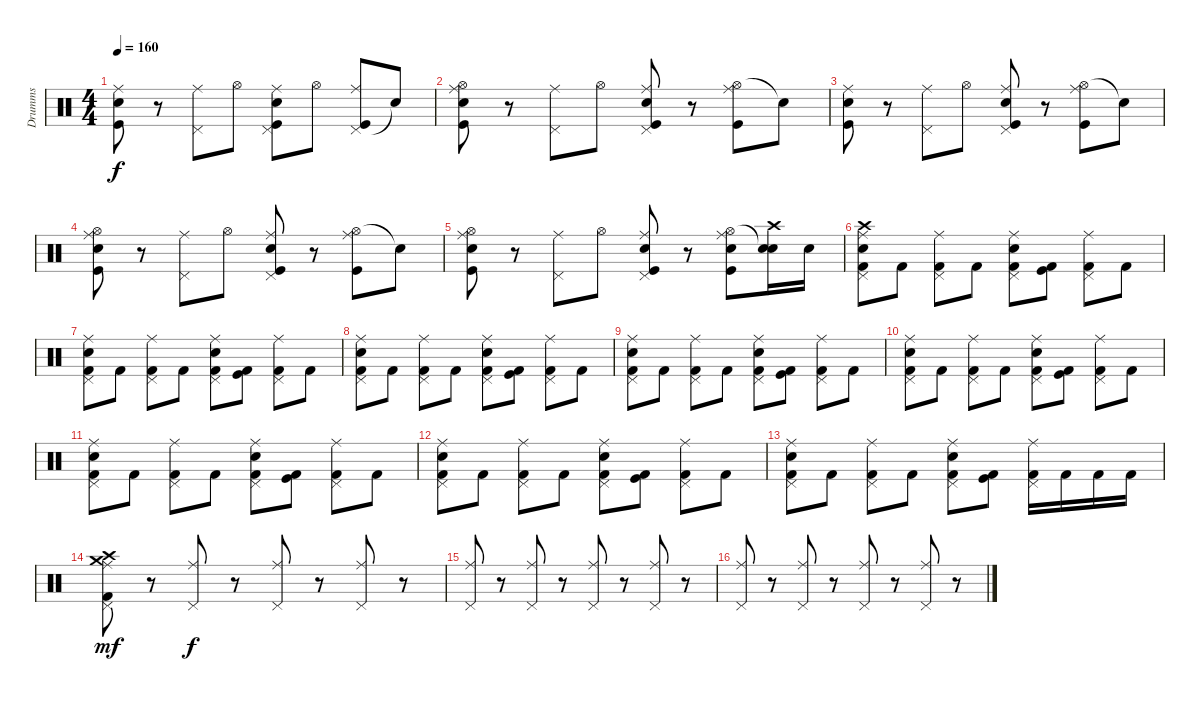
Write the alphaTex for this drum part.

\track ("Drumms" "Drumms") {instrument percussion}
\staff {score}
\articulation defaults
\ts (4 4)
\tempo 160
\clef neutral
\ks c
("Ride (middle)" "Snare (hit) 2" "Kick (hit)").8{dy f} r.8 ("Pedal Hi-Hat (hit)" "Ride (middle)").8 "Hi-Hat (open)".8 ("Pedal Hi-Hat (hit)" "Ride (middle)" "Snare (hit) 2" "Kick (hit)").8 "Hi-Hat (open)".8 ("Pedal Hi-Hat (hit)" "Ride (middle)" "Kick (hit)").8 "Snare (hit)"{t}.8 |
("Hi-Hat (open)" "Ride (middle)" "Snare (hit) 2" "Kick (hit)").8 r.8 ("Pedal Hi-Hat (hit)" "Ride (middle)").8 "Hi-Hat (open)".8 ("Pedal Hi-Hat (hit)" "Ride (middle)" "Snare (hit) 2" "Kick (hit)").8 r.8 ("Hi-Hat (open)" "Ride (middle)" "Kick (hit)").8 "Snare (hit)"{t}.8 |
("Ride (middle)" "Snare (hit) 2" "Kick (hit)").8 r.8 ("Pedal Hi-Hat (hit)" "Ride (middle)").8 "Hi-Hat (open)".8 ("Pedal Hi-Hat (hit)" "Ride (middle)" "Snare (hit) 2" "Kick (hit)").8 r.8 ("Hi-Hat (open)" "Ride (middle)" "Kick (hit)").8 "Snare (hit)"{t}.8 |
("Hi-Hat (open)" "Ride (middle)" "Snare (hit) 2" "Kick (hit)").8 r.8 ("Pedal Hi-Hat (hit)" "Ride (middle)").8 "Hi-Hat (open)".8 ("Pedal Hi-Hat (hit)" "Ride (middle)" "Snare (hit) 2" "Kick (hit)").8 r.8 ("Hi-Hat (open)" "Ride (middle)" "Kick (hit)").8 "Snare (hit)"{t}.8 |
("Hi-Hat (open)" "Ride (middle)" "Snare (hit) 2" "Kick (hit)").8 r.8 ("Pedal Hi-Hat (hit)" "Ride (middle)").8 "Hi-Hat (open)".8 ("Pedal Hi-Hat (hit)" "Ride (middle)" "Snare (hit) 2" "Kick (hit)").8 r.8 ("Hi-Hat (open)" "Ride (middle)" "Snare (hit) 2" "Kick (hit)").8 ("Snare (hit)"{t} "Crash high (hit)" "Snare (hit) 2").16 "Snare (hit) 2".16 |
("Pedal Hi-Hat (hit)" "Ride (middle)" "Crash high (hit)" "Snare (hit) 2" "Kick (hit) 2").8 "Kick (hit) 2".8 ("Pedal Hi-Hat (hit)" "Ride (middle)" "Kick (hit) 2").8 "Kick (hit) 2".8 ("Pedal Hi-Hat (hit)" "Ride (middle)" "Snare (hit) 2" "Kick (hit) 2").8 ("Kick (hit)" "Kick (hit) 2").8 ("Pedal Hi-Hat (hit)" "Ride (middle)" "Kick (hit) 2").8 "Kick (hit) 2".8 |
("Pedal Hi-Hat (hit)" "Ride (middle)" "Snare (hit) 2" "Kick (hit) 2").8 "Kick (hit) 2".8 ("Pedal Hi-Hat (hit)" "Ride (middle)" "Kick (hit) 2").8 "Kick (hit) 2".8 ("Pedal Hi-Hat (hit)" "Ride (middle)" "Snare (hit) 2" "Kick (hit) 2").8 ("Kick (hit)" "Kick (hit) 2").8 ("Pedal Hi-Hat (hit)" "Ride (middle)" "Kick (hit) 2").8 "Kick (hit) 2".8 |
("Pedal Hi-Hat (hit)" "Ride (middle)" "Snare (hit) 2" "Kick (hit) 2").8 "Kick (hit) 2".8 ("Pedal Hi-Hat (hit)" "Ride (middle)" "Kick (hit) 2").8 "Kick (hit) 2".8 ("Pedal Hi-Hat (hit)" "Ride (middle)" "Snare (hit) 2" "Kick (hit) 2").8 ("Kick (hit)" "Kick (hit) 2").8 ("Pedal Hi-Hat (hit)" "Ride (middle)" "Kick (hit) 2").8 "Kick (hit) 2".8 |
("Pedal Hi-Hat (hit)" "Ride (middle)" "Snare (hit) 2" "Kick (hit) 2").8 "Kick (hit) 2".8 ("Pedal Hi-Hat (hit)" "Ride (middle)" "Kick (hit) 2").8 "Kick (hit) 2".8 ("Pedal Hi-Hat (hit)" "Ride (middle)" "Snare (hit) 2" "Kick (hit) 2").8 ("Kick (hit)" "Kick (hit) 2").8 ("Pedal Hi-Hat (hit)" "Ride (middle)" "Kick (hit) 2").8 "Kick (hit) 2".8 |
("Pedal Hi-Hat (hit)" "Ride (middle)" "Snare (hit) 2" "Kick (hit) 2").8 "Kick (hit) 2".8 ("Pedal Hi-Hat (hit)" "Ride (middle)" "Kick (hit) 2").8 "Kick (hit) 2".8 ("Pedal Hi-Hat (hit)" "Ride (middle)" "Snare (hit) 2" "Kick (hit) 2").8 ("Kick (hit)" "Kick (hit) 2").8 ("Pedal Hi-Hat (hit)" "Ride (middle)" "Kick (hit) 2").8 "Kick (hit) 2".8 |
("Pedal Hi-Hat (hit)" "Ride (middle)" "Snare (hit) 2" "Kick (hit) 2").8 "Kick (hit) 2".8 ("Pedal Hi-Hat (hit)" "Ride (middle)" "Kick (hit) 2").8 "Kick (hit) 2".8 ("Pedal Hi-Hat (hit)" "Ride (middle)" "Snare (hit) 2" "Kick (hit) 2").8 ("Kick (hit)" "Kick (hit) 2").8 ("Pedal Hi-Hat (hit)" "Ride (middle)" "Kick (hit) 2").8 "Kick (hit) 2".8 |
("Pedal Hi-Hat (hit)" "Ride (middle)" "Snare (hit) 2" "Kick (hit) 2").8 "Kick (hit) 2".8 ("Pedal Hi-Hat (hit)" "Ride (middle)" "Kick (hit) 2").8 "Kick (hit) 2".8 ("Pedal Hi-Hat (hit)" "Ride (middle)" "Snare (hit) 2" "Kick (hit) 2").8 ("Kick (hit)" "Kick (hit) 2").8 ("Pedal Hi-Hat (hit)" "Ride (middle)" "Kick (hit) 2").8 "Kick (hit) 2".8 |
("Pedal Hi-Hat (hit)" "Ride (middle)" "Snare (hit) 2" "Kick (hit) 2").8 "Kick (hit) 2".8 ("Pedal Hi-Hat (hit)" "Ride (middle)" "Kick (hit) 2").8 "Kick (hit) 2".8 ("Pedal Hi-Hat (hit)" "Ride (middle)" "Snare (hit) 2" "Kick (hit) 2").8 ("Kick (hit)" "Kick (hit) 2").8 ("Pedal Hi-Hat (hit)" "Ride (middle)" "Kick (hit) 2").16 "Kick (hit) 2".16 "Kick (hit) 2".16 "Kick (hit) 2".16 |
("Pedal Hi-Hat (hit)" "Ride (middle)" "Crash high (hit)" "Crash medium (hit)" "Kick (hit) 2").8{dy mf} r.8 ("Pedal Hi-Hat (hit)" "Ride (middle)").8{dy f} r.8 ("Pedal Hi-Hat (hit)" "Ride (middle)").8 r.8 ("Pedal Hi-Hat (hit)" "Ride (middle)").8 r.8 |
("Pedal Hi-Hat (hit)" "Ride (middle)").8 r.8 ("Pedal Hi-Hat (hit)" "Ride (middle)").8 r.8 ("Pedal Hi-Hat (hit)" "Ride (middle)").8 r.8 ("Pedal Hi-Hat (hit)" "Ride (middle)").8 r.8 |
("Pedal Hi-Hat (hit)" "Ride (middle)").8 r.8 ("Pedal Hi-Hat (hit)" "Ride (middle)").8 r.8 ("Pedal Hi-Hat (hit)" "Ride (middle)").8 r.8 ("Pedal Hi-Hat (hit)" "Ride (middle)").8 r.8
